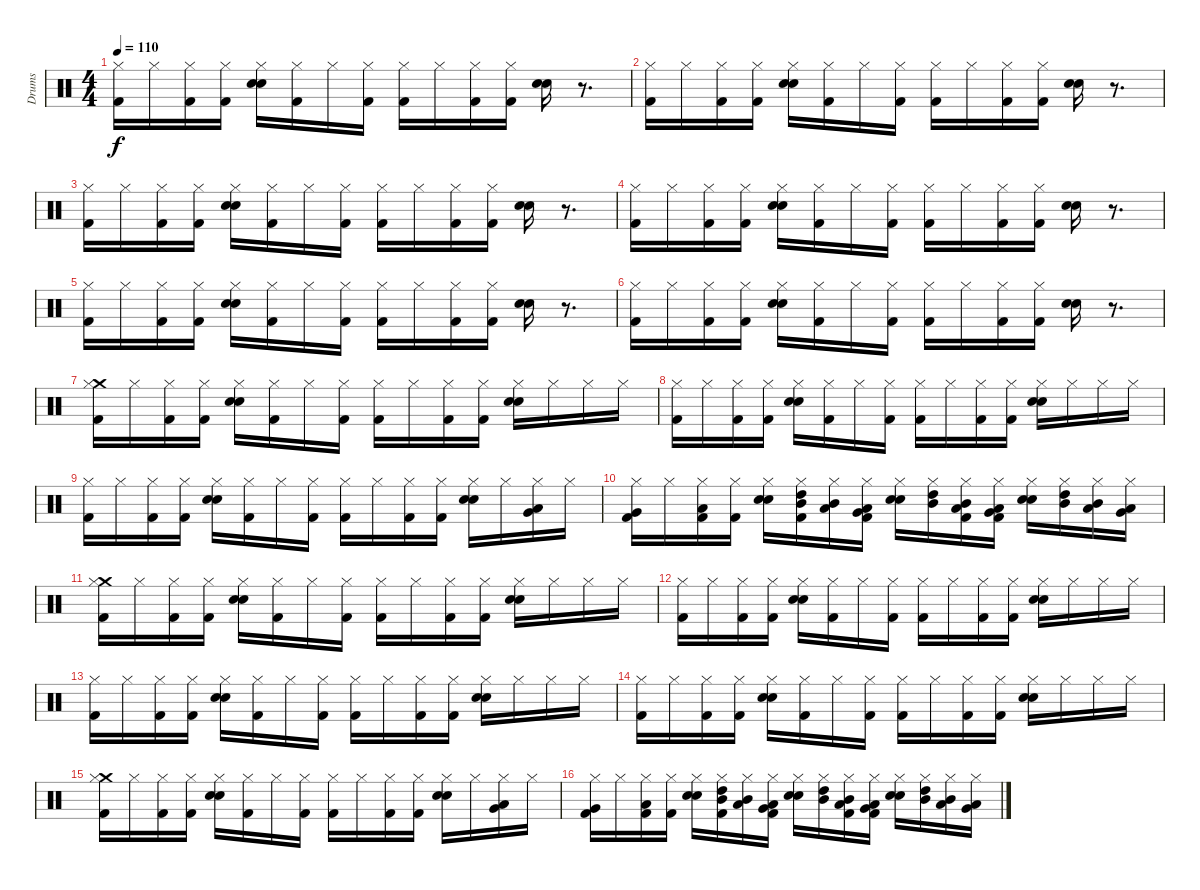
\track ("Drums" "Drums") {instrument percussion}
\staff {score}
\articulation defaults
\ts (4 4)
\tempo 110
\clef neutral
\ks c
("Kick (hit) 2" "Hi-Hat (closed)").16{dy f} "Hi-Hat (closed)".16 ("Kick (hit) 2" "Hi-Hat (closed)").16 ("Kick (hit) 2" "Hi-Hat (closed)").16 ("Electric Snare (hit)" "Snare (hit) 2" "Hi-Hat (closed)").16 ("Kick (hit) 2" "Hi-Hat (closed)").16 "Hi-Hat (closed)".16 ("Kick (hit) 2" "Hi-Hat (closed)").16 ("Kick (hit) 2" "Hi-Hat (closed)").16 "Hi-Hat (closed)".16 ("Kick (hit) 2" "Hi-Hat (closed)").16 ("Kick (hit) 2" "Hi-Hat (closed)").16 ("Electric Snare (hit)" "Snare (hit) 2").16 r.8{d} |
("Hi-Hat (closed)" "Kick (hit) 2").16 "Hi-Hat (closed)".16 ("Hi-Hat (closed)" "Kick (hit) 2").16 ("Hi-Hat (closed)" "Kick (hit) 2").16 ("Hi-Hat (closed)" "Electric Snare (hit)" "Snare (hit) 2").16 ("Hi-Hat (closed)" "Kick (hit) 2").16 "Hi-Hat (closed)".16 ("Hi-Hat (closed)" "Kick (hit) 2").16 ("Hi-Hat (closed)" "Kick (hit) 2").16 "Hi-Hat (closed)".16 ("Hi-Hat (closed)" "Kick (hit) 2").16 ("Hi-Hat (closed)" "Kick (hit) 2").16 ("Electric Snare (hit)" "Snare (hit) 2").16 r.8{d} |
("Kick (hit) 2" "Hi-Hat (closed)").16 "Hi-Hat (closed)".16 ("Kick (hit) 2" "Hi-Hat (closed)").16 ("Kick (hit) 2" "Hi-Hat (closed)").16 ("Electric Snare (hit)" "Snare (hit) 2" "Hi-Hat (closed)").16 ("Kick (hit) 2" "Hi-Hat (closed)").16 "Hi-Hat (closed)".16 ("Kick (hit) 2" "Hi-Hat (closed)").16 ("Kick (hit) 2" "Hi-Hat (closed)").16 "Hi-Hat (closed)".16 ("Kick (hit) 2" "Hi-Hat (closed)").16 ("Kick (hit) 2" "Hi-Hat (closed)").16 ("Electric Snare (hit)" "Snare (hit) 2").16 r.8{d} |
("Kick (hit) 2" "Hi-Hat (closed)").16 "Hi-Hat (closed)".16 ("Kick (hit) 2" "Hi-Hat (closed)").16 ("Kick (hit) 2" "Hi-Hat (closed)").16 ("Electric Snare (hit)" "Snare (hit) 2" "Hi-Hat (closed)").16 ("Kick (hit) 2" "Hi-Hat (closed)").16 "Hi-Hat (closed)".16 ("Kick (hit) 2" "Hi-Hat (closed)").16 ("Kick (hit) 2" "Hi-Hat (closed)").16 "Hi-Hat (closed)".16 ("Kick (hit) 2" "Hi-Hat (closed)").16 ("Kick (hit) 2" "Hi-Hat (closed)").16 ("Electric Snare (hit)" "Snare (hit) 2").16 r.8{d} |
("Hi-Hat (closed)" "Kick (hit) 2").16 "Hi-Hat (closed)".16 ("Hi-Hat (closed)" "Kick (hit) 2").16 ("Hi-Hat (closed)" "Kick (hit) 2").16 ("Hi-Hat (closed)" "Electric Snare (hit)" "Snare (hit) 2").16 ("Hi-Hat (closed)" "Kick (hit) 2").16 "Hi-Hat (closed)".16 ("Hi-Hat (closed)" "Kick (hit) 2").16 ("Hi-Hat (closed)" "Kick (hit) 2").16 "Hi-Hat (closed)".16 ("Hi-Hat (closed)" "Kick (hit) 2").16 ("Hi-Hat (closed)" "Kick (hit) 2").16 ("Electric Snare (hit)" "Snare (hit) 2").16 r.8{d} |
("Hi-Hat (closed)" "Kick (hit) 2").16 "Hi-Hat (closed)".16 ("Hi-Hat (closed)" "Kick (hit) 2").16 ("Hi-Hat (closed)" "Kick (hit) 2").16 ("Hi-Hat (closed)" "Electric Snare (hit)" "Snare (hit) 2").16 ("Hi-Hat (closed)" "Kick (hit) 2").16 "Hi-Hat (closed)".16 ("Hi-Hat (closed)" "Kick (hit) 2").16 ("Hi-Hat (closed)" "Kick (hit) 2").16 "Hi-Hat (closed)".16 ("Hi-Hat (closed)" "Kick (hit) 2").16 ("Hi-Hat (closed)" "Kick (hit) 2").16 ("Electric Snare (hit)" "Snare (hit) 2").16 r.8{d} |
("Crash medium (hit)" "Kick (hit) 2" "Hi-Hat (closed)").16 "Hi-Hat (closed)".16 ("Kick (hit) 2" "Hi-Hat (closed)").16 ("Kick (hit) 2" "Hi-Hat (closed)").16 ("Electric Snare (hit)" "Snare (hit) 2" "Hi-Hat (closed)").16 ("Kick (hit) 2" "Hi-Hat (closed)").16 "Hi-Hat (closed)".16 ("Kick (hit) 2" "Hi-Hat (closed)").16 ("Kick (hit) 2" "Hi-Hat (closed)").16 "Hi-Hat (closed)".16 ("Kick (hit) 2" "Hi-Hat (closed)").16 ("Kick (hit) 2" "Hi-Hat (closed)").16 ("Electric Snare (hit)" "Snare (hit) 2" "Hi-Hat (closed)").16 "Hi-Hat (closed)".16 "Hi-Hat (closed)".16 "Hi-Hat (closed)".16 |
("Kick (hit) 2" "Hi-Hat (closed)").16 "Hi-Hat (closed)".16 ("Kick (hit) 2" "Hi-Hat (closed)").16 ("Kick (hit) 2" "Hi-Hat (closed)").16 ("Electric Snare (hit)" "Snare (hit) 2" "Hi-Hat (closed)").16 ("Kick (hit) 2" "Hi-Hat (closed)").16 "Hi-Hat (closed)".16 ("Kick (hit) 2" "Hi-Hat (closed)").16 ("Kick (hit) 2" "Hi-Hat (closed)").16 "Hi-Hat (closed)".16 ("Kick (hit) 2" "Hi-Hat (closed)").16 ("Kick (hit) 2" "Hi-Hat (closed)").16 ("Electric Snare (hit)" "Snare (hit) 2" "Hi-Hat (closed)").16 "Hi-Hat (closed)".16 "Hi-Hat (closed)".16 "Hi-Hat (closed)".16 |
("Kick (hit) 2" "Hi-Hat (closed)").16 "Hi-Hat (closed)".16 ("Kick (hit) 2" "Hi-Hat (closed)").16 ("Kick (hit) 2" "Hi-Hat (closed)").16 ("Electric Snare (hit)" "Snare (hit) 2" "Hi-Hat (closed)").16 ("Kick (hit) 2" "Hi-Hat (closed)").16 "Hi-Hat (closed)".16 ("Kick (hit) 2" "Hi-Hat (closed)").16 ("Kick (hit) 2" "Hi-Hat (closed)").16 "Hi-Hat (closed)".16 ("Kick (hit) 2" "Hi-Hat (closed)").16 ("Kick (hit) 2" "Hi-Hat (closed)").16 ("Electric Snare (hit)" "Snare (hit) 2" "Hi-Hat (closed)").16 "Hi-Hat (closed)".16 ("Low Tom (hit)" "Very Low Tom (hit)" "Hi-Hat (closed)").16 "Hi-Hat (closed)".16 |
("Very Low Tom (hit)" "Kick (hit) 2" "Hi-Hat (closed)").16 "Hi-Hat (closed)".16 ("Low Floor Tom (hit)" "Kick (hit) 2" "Hi-Hat (closed)").16 ("Kick (hit) 2" "Hi-Hat (closed)").16 ("Electric Snare (hit)" "Snare (hit) 2" "Hi-Hat (closed)").16 ("Mid Tom (hit)" "High Tom (hit)" "Kick (hit) 2" "Hi-Hat (closed)").16 ("Low Tom (hit)" "Mid Tom (hit)" "Hi-Hat (closed)").16 ("Low Floor Tom (hit)" "Very Low Tom (hit)" "Kick (hit) 2" "Hi-Hat (closed)").16 ("Electric Snare (hit)" "Snare (hit) 2" "Hi-Hat (closed)").16 ("Mid Tom (hit)" "High Tom (hit)" "Hi-Hat (closed)").16 ("Low Tom (hit)" "Mid Tom (hit)" "Kick (hit) 2" "Hi-Hat (closed)").16 ("Very Low Tom (hit)" "Low Tom (hit)" "Kick (hit) 2" "Hi-Hat (closed)").16 ("Electric Snare (hit)" "Snare (hit) 2" "Hi-Hat (closed)").16 ("Mid Tom (hit)" "High Tom (hit)" "Hi-Hat (closed)").16 ("Low Tom (hit)" "Mid Tom (hit)" "Hi-Hat (closed)").16 ("Very Low Tom (hit)" "Low Tom (hit)" "Hi-Hat (closed)").16 |
("Crash medium (hit)" "Kick (hit) 2" "Hi-Hat (closed)").16 "Hi-Hat (closed)".16 ("Kick (hit) 2" "Hi-Hat (closed)").16 ("Kick (hit) 2" "Hi-Hat (closed)").16 ("Electric Snare (hit)" "Snare (hit) 2" "Hi-Hat (closed)").16 ("Kick (hit) 2" "Hi-Hat (closed)").16 "Hi-Hat (closed)".16 ("Kick (hit) 2" "Hi-Hat (closed)").16 ("Kick (hit) 2" "Hi-Hat (closed)").16 "Hi-Hat (closed)".16 ("Kick (hit) 2" "Hi-Hat (closed)").16 ("Kick (hit) 2" "Hi-Hat (closed)").16 ("Electric Snare (hit)" "Snare (hit) 2" "Hi-Hat (closed)").16 "Hi-Hat (closed)".16 "Hi-Hat (closed)".16 "Hi-Hat (closed)".16 |
("Hi-Hat (closed)" "Kick (hit) 2").16 "Hi-Hat (closed)".16 ("Hi-Hat (closed)" "Kick (hit) 2").16 ("Hi-Hat (closed)" "Kick (hit) 2").16 ("Hi-Hat (closed)" "Electric Snare (hit)" "Snare (hit) 2").16 ("Hi-Hat (closed)" "Kick (hit) 2").16 "Hi-Hat (closed)".16 ("Hi-Hat (closed)" "Kick (hit) 2").16 ("Hi-Hat (closed)" "Kick (hit) 2").16 "Hi-Hat (closed)".16 ("Hi-Hat (closed)" "Kick (hit) 2").16 ("Hi-Hat (closed)" "Kick (hit) 2").16 ("Hi-Hat (closed)" "Electric Snare (hit)" "Snare (hit) 2").16 "Hi-Hat (closed)".16 "Hi-Hat (closed)".16 "Hi-Hat (closed)".16 |
("Hi-Hat (closed)" "Kick (hit) 2").16 "Hi-Hat (closed)".16 ("Hi-Hat (closed)" "Kick (hit) 2").16 ("Hi-Hat (closed)" "Kick (hit) 2").16 ("Hi-Hat (closed)" "Electric Snare (hit)" "Snare (hit) 2").16 ("Hi-Hat (closed)" "Kick (hit) 2").16 "Hi-Hat (closed)".16 ("Hi-Hat (closed)" "Kick (hit) 2").16 ("Hi-Hat (closed)" "Kick (hit) 2").16 "Hi-Hat (closed)".16 ("Hi-Hat (closed)" "Kick (hit) 2").16 ("Hi-Hat (closed)" "Kick (hit) 2").16 ("Hi-Hat (closed)" "Electric Snare (hit)" "Snare (hit) 2").16 "Hi-Hat (closed)".16 "Hi-Hat (closed)".16 "Hi-Hat (closed)".16 |
("Hi-Hat (closed)" "Kick (hit) 2").16 "Hi-Hat (closed)".16 ("Hi-Hat (closed)" "Kick (hit) 2").16 ("Hi-Hat (closed)" "Kick (hit) 2").16 ("Hi-Hat (closed)" "Electric Snare (hit)" "Snare (hit) 2").16 ("Hi-Hat (closed)" "Kick (hit) 2").16 "Hi-Hat (closed)".16 ("Hi-Hat (closed)" "Kick (hit) 2").16 ("Hi-Hat (closed)" "Kick (hit) 2").16 "Hi-Hat (closed)".16 ("Hi-Hat (closed)" "Kick (hit) 2").16 ("Hi-Hat (closed)" "Kick (hit) 2").16 ("Hi-Hat (closed)" "Electric Snare (hit)" "Snare (hit) 2").16 "Hi-Hat (closed)".16 "Hi-Hat (closed)".16 "Hi-Hat (closed)".16 |
("Crash medium (hit)" "Kick (hit) 2" "Hi-Hat (closed)").16 "Hi-Hat (closed)".16 ("Kick (hit) 2" "Hi-Hat (closed)").16 ("Kick (hit) 2" "Hi-Hat (closed)").16 ("Electric Snare (hit)" "Snare (hit) 2" "Hi-Hat (closed)").16 ("Kick (hit) 2" "Hi-Hat (closed)").16 "Hi-Hat (closed)".16 ("Kick (hit) 2" "Hi-Hat (closed)").16 ("Kick (hit) 2" "Hi-Hat (closed)").16 "Hi-Hat (closed)".16 ("Kick (hit) 2" "Hi-Hat (closed)").16 ("Kick (hit) 2" "Hi-Hat (closed)").16 ("Electric Snare (hit)" "Snare (hit) 2" "Hi-Hat (closed)").16 "Hi-Hat (closed)".16 ("Low Tom (hit)" "Very Low Tom (hit)" "Hi-Hat (closed)").16 "Hi-Hat (closed)".16 |
("Very Low Tom (hit)" "Kick (hit) 2" "Hi-Hat (closed)").16 "Hi-Hat (closed)".16 ("Low Floor Tom (hit)" "Kick (hit) 2" "Hi-Hat (closed)").16 ("Kick (hit) 2" "Hi-Hat (closed)").16 ("Electric Snare (hit)" "Snare (hit) 2" "Hi-Hat (closed)").16 ("Mid Tom (hit)" "High Tom (hit)" "Kick (hit) 2" "Hi-Hat (closed)").16 ("Low Tom (hit)" "Mid Tom (hit)" "Hi-Hat (closed)").16 ("Low Floor Tom (hit)" "Very Low Tom (hit)" "Kick (hit) 2" "Hi-Hat (closed)").16 ("Electric Snare (hit)" "Snare (hit) 2" "Hi-Hat (closed)").16 ("Mid Tom (hit)" "High Tom (hit)" "Hi-Hat (closed)").16 ("Low Tom (hit)" "Mid Tom (hit)" "Kick (hit) 2" "Hi-Hat (closed)").16 ("Very Low Tom (hit)" "Low Tom (hit)" "Kick (hit) 2" "Hi-Hat (closed)").16 ("Electric Snare (hit)" "Snare (hit) 2" "Hi-Hat (closed)").16 ("Mid Tom (hit)" "High Tom (hit)" "Hi-Hat (closed)").16 ("Low Tom (hit)" "Mid Tom (hit)" "Hi-Hat (closed)").16 ("Very Low Tom (hit)" "Low Tom (hit)" "Hi-Hat (closed)").16
